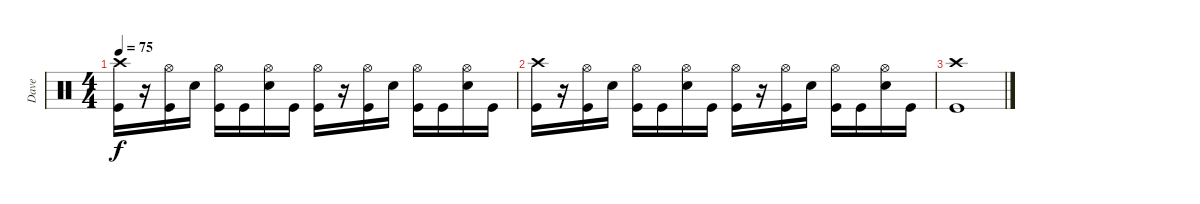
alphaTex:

\track ("Dave" "Dave") {instrument percussion}
\staff {score}
\articulation defaults
\ts (4 4)
\tempo 75
\clef neutral
\ks c
("Crash high (hit)" "Kick (hit)").16{dy f} r.16 ("Hi-Hat (open)" "Kick (hit)").16 "Snare (hit) 2".16 ("Hi-Hat (open)" "Kick (hit)").16 "Kick (hit)".16 ("Hi-Hat (open)" "Snare (hit) 2").16 "Kick (hit)".16 ("Hi-Hat (open)" "Kick (hit)").16 r.16 ("Hi-Hat (open)" "Kick (hit)").16 "Snare (hit) 2".16 ("Hi-Hat (open)" "Kick (hit)").16 "Kick (hit)".16 ("Hi-Hat (open)" "Snare (hit) 2").16 "Kick (hit)".16 |
("Crash high (hit)" "Kick (hit)").16 r.16 ("Hi-Hat (open)" "Kick (hit)").16 "Snare (hit) 2".16 ("Hi-Hat (open)" "Kick (hit)").16 "Kick (hit)".16 ("Hi-Hat (open)" "Snare (hit) 2").16 "Kick (hit)".16 ("Hi-Hat (open)" "Kick (hit)").16 r.16 ("Hi-Hat (open)" "Kick (hit)").16 "Snare (hit) 2".16 ("Hi-Hat (open)" "Kick (hit)").16 "Kick (hit)".16 ("Hi-Hat (open)" "Snare (hit) 2").16 "Kick (hit)".16 |
("Crash high (hit)" "Kick (hit)").1
